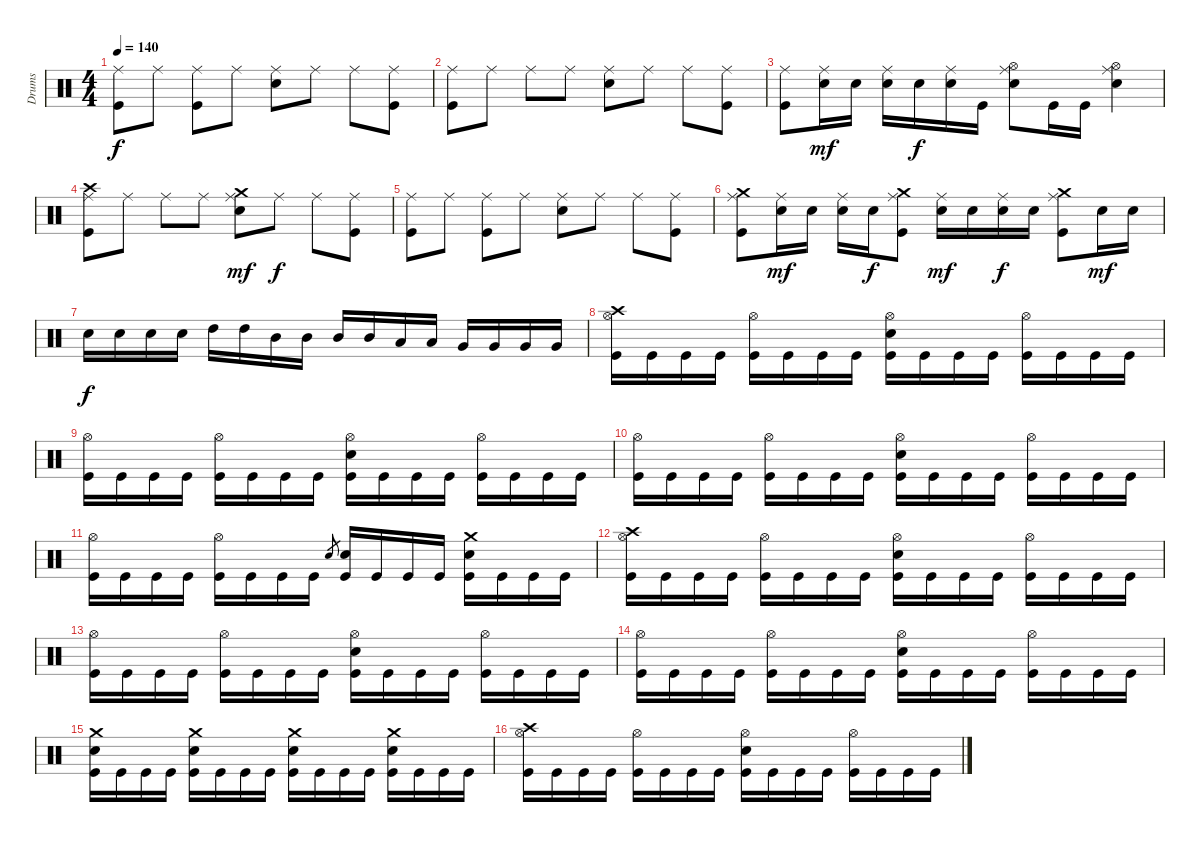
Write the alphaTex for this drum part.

\track ("Drums" "Drums") {instrument percussion}
\staff {score}
\articulation defaults
\ts (4 4)
\tempo 140
\clef neutral
\ks c
("Ride (middle)" "Kick (hit)").8{dy f} "Ride (middle)".8 ("Ride (middle)" "Kick (hit)").8 "Ride (middle)".8 ("Ride (middle)" "Electric Snare (hit)").8 "Ride (middle)".8 "Ride (middle)".8 ("Ride (middle)" "Kick (hit)").8 |
("Ride (middle)" "Kick (hit)").8 "Ride (middle)".8 "Ride (middle)".8 "Ride (middle)".8 ("Ride (middle)" "Electric Snare (hit)").8 "Ride (middle)".8 "Ride (middle)".8 ("Ride (middle)" "Kick (hit)").8 |
("Ride (middle)" "Kick (hit)").8 ("Ride (middle)" "Electric Snare (hit)").16{dy mf} "Electric Snare (hit)".16 ("Ride (middle)" "Electric Snare (hit)").16 "Electric Snare (hit)".16{dy f} ("Ride (middle)" "Electric Snare (hit)").16 "Kick (hit)".16 ("Ride (middle)" "Hi-Hat (open)" "Electric Snare (hit)").8 "Kick (hit)".16 "Kick (hit)".16 ("Ride (middle)" "Hi-Hat (open)" "Electric Snare (hit)").4 |
("Crash high (hit)" "Ride (middle)" "Kick (hit)").8 "Ride (middle)".8 "Ride (middle)".8 "Ride (middle)".8 ("Crash medium (hit)" "Ride (middle)" "Electric Snare (hit)").8{dy mf} "Ride (middle)".8{dy f} "Ride (middle)".8 ("Ride (middle)" "Kick (hit)").8 |
("Ride (middle)" "Kick (hit)").8 "Ride (middle)".8 ("Ride (middle)" "Kick (hit)").8 "Ride (middle)".8 ("Ride (middle)" "Electric Snare (hit)").8 "Ride (middle)".8 "Ride (middle)".8 ("Ride (middle)" "Kick (hit)").8 |
("Crash medium (hit)" "Ride (middle)" "Kick (hit)").8 ("Ride (middle)" "Electric Snare (hit)").16{dy mf} "Electric Snare (hit)".16 ("Ride (middle)" "Electric Snare (hit)").16 "Electric Snare (hit)".16{dy f} ("Ride (middle)" "Crash medium (hit)" "Kick (hit)").8 ("Ride (middle)" "Electric Snare (hit)").16{dy mf} "Electric Snare (hit)".16 ("Ride (middle)" "Electric Snare (hit)").16{dy f} "Electric Snare (hit)".16 ("Ride (middle)" "Crash medium (hit)" "Kick (hit)").8 "Electric Snare (hit)".16{dy mf} "Electric Snare (hit)".16 |
"Electric Snare (hit)".16{dy f} "Electric Snare (hit)".16 "Electric Snare (hit)".16 "Electric Snare (hit)".16 "High Tom (hit)".16 "High Tom (hit)".16 "Mid Tom (hit)".16 "Mid Tom (hit)".16 "Mid Tom (hit)".16 "Mid Tom (hit)".16 "Low Tom (hit)".16 "Low Tom (hit)".16 "Very Low Tom (hit)".16 "Very Low Tom (hit)".16 "Very Low Tom (hit)".16 "Very Low Tom (hit)".16 |
("Crash high (hit)" "Hi-Hat (open)" "Kick (hit)").16 "Kick (hit)".16 "Kick (hit)".16 "Kick (hit)".16 ("Hi-Hat (open)" "Kick (hit)").16 "Kick (hit)".16 "Kick (hit)".16 "Kick (hit)".16 ("Hi-Hat (open)" "Electric Snare (hit)" "Kick (hit)").16 "Kick (hit)".16 "Kick (hit)".16 "Kick (hit)".16 ("Hi-Hat (open)" "Kick (hit)").16 "Kick (hit)".16 "Kick (hit)".16 "Kick (hit)".16 |
("Hi-Hat (open)" "Kick (hit)").16 "Kick (hit)".16 "Kick (hit)".16 "Kick (hit)".16 ("Hi-Hat (open)" "Kick (hit)").16 "Kick (hit)".16 "Kick (hit)".16 "Kick (hit)".16 ("Hi-Hat (open)" "Electric Snare (hit)" "Kick (hit)").16 "Kick (hit)".16 "Kick (hit)".16 "Kick (hit)".16 ("Hi-Hat (open)" "Kick (hit)").16 "Kick (hit)".16 "Kick (hit)".16 "Kick (hit)".16 |
("Hi-Hat (open)" "Kick (hit)").16 "Kick (hit)".16 "Kick (hit)".16 "Kick (hit)".16 ("Hi-Hat (open)" "Kick (hit)").16 "Kick (hit)".16 "Kick (hit)".16 "Kick (hit)".16 ("Hi-Hat (open)" "Electric Snare (hit)" "Kick (hit)").16 "Kick (hit)".16 "Kick (hit)".16 "Kick (hit)".16 ("Hi-Hat (open)" "Kick (hit)").16 "Kick (hit)".16 "Kick (hit)".16 "Kick (hit)".16 |
("Hi-Hat (open)" "Kick (hit)").16 "Kick (hit)".16 "Kick (hit)".16 "Kick (hit)".16 ("Hi-Hat (open)" "Kick (hit)").16 "Kick (hit)".16 "Kick (hit)".16 "Kick (hit)".16 "Electric Snare (hit)".8{gr} ("Electric Snare (hit)" "Kick (hit)").16 "Kick (hit)".16 "Kick (hit)".16 "Kick (hit)".16 ("Crash medium (hit)" "Electric Snare (hit)" "Kick (hit)").16 "Kick (hit)".16 "Kick (hit)".16 "Kick (hit)".16 |
("Crash high (hit)" "Hi-Hat (open)" "Kick (hit)").16 "Kick (hit)".16 "Kick (hit)".16 "Kick (hit)".16 ("Hi-Hat (open)" "Kick (hit)").16 "Kick (hit)".16 "Kick (hit)".16 "Kick (hit)".16 ("Hi-Hat (open)" "Electric Snare (hit)" "Kick (hit)").16 "Kick (hit)".16 "Kick (hit)".16 "Kick (hit)".16 ("Hi-Hat (open)" "Kick (hit)").16 "Kick (hit)".16 "Kick (hit)".16 "Kick (hit)".16 |
("Hi-Hat (open)" "Kick (hit)").16 "Kick (hit)".16 "Kick (hit)".16 "Kick (hit)".16 ("Hi-Hat (open)" "Kick (hit)").16 "Kick (hit)".16 "Kick (hit)".16 "Kick (hit)".16 ("Hi-Hat (open)" "Electric Snare (hit)" "Kick (hit)").16 "Kick (hit)".16 "Kick (hit)".16 "Kick (hit)".16 ("Hi-Hat (open)" "Kick (hit)").16 "Kick (hit)".16 "Kick (hit)".16 "Kick (hit)".16 |
("Hi-Hat (open)" "Kick (hit)").16 "Kick (hit)".16 "Kick (hit)".16 "Kick (hit)".16 ("Hi-Hat (open)" "Kick (hit)").16 "Kick (hit)".16 "Kick (hit)".16 "Kick (hit)".16 ("Hi-Hat (open)" "Electric Snare (hit)" "Kick (hit)").16 "Kick (hit)".16 "Kick (hit)".16 "Kick (hit)".16 ("Hi-Hat (open)" "Kick (hit)").16 "Kick (hit)".16 "Kick (hit)".16 "Kick (hit)".16 |
("Crash medium (hit)" "Electric Snare (hit)" "Kick (hit)").16 "Kick (hit)".16 "Kick (hit)".16 "Kick (hit)".16 ("Crash medium (hit)" "Electric Snare (hit)" "Kick (hit)").16 "Kick (hit)".16 "Kick (hit)".16 "Kick (hit)".16 ("Crash medium (hit)" "Electric Snare (hit)" "Kick (hit)").16 "Kick (hit)".16 "Kick (hit)".16 "Kick (hit)".16 ("Crash medium (hit)" "Electric Snare (hit)" "Kick (hit)").16 "Kick (hit)".16 "Kick (hit)".16 "Kick (hit)".16 |
("Crash high (hit)" "Hi-Hat (open)" "Kick (hit)").16 "Kick (hit)".16 "Kick (hit)".16 "Kick (hit)".16 ("Hi-Hat (open)" "Kick (hit)").16 "Kick (hit)".16 "Kick (hit)".16 "Kick (hit)".16 ("Hi-Hat (open)" "Electric Snare (hit)" "Kick (hit)").16 "Kick (hit)".16 "Kick (hit)".16 "Kick (hit)".16 ("Hi-Hat (open)" "Kick (hit)").16 "Kick (hit)".16 "Kick (hit)".16 "Kick (hit)".16
